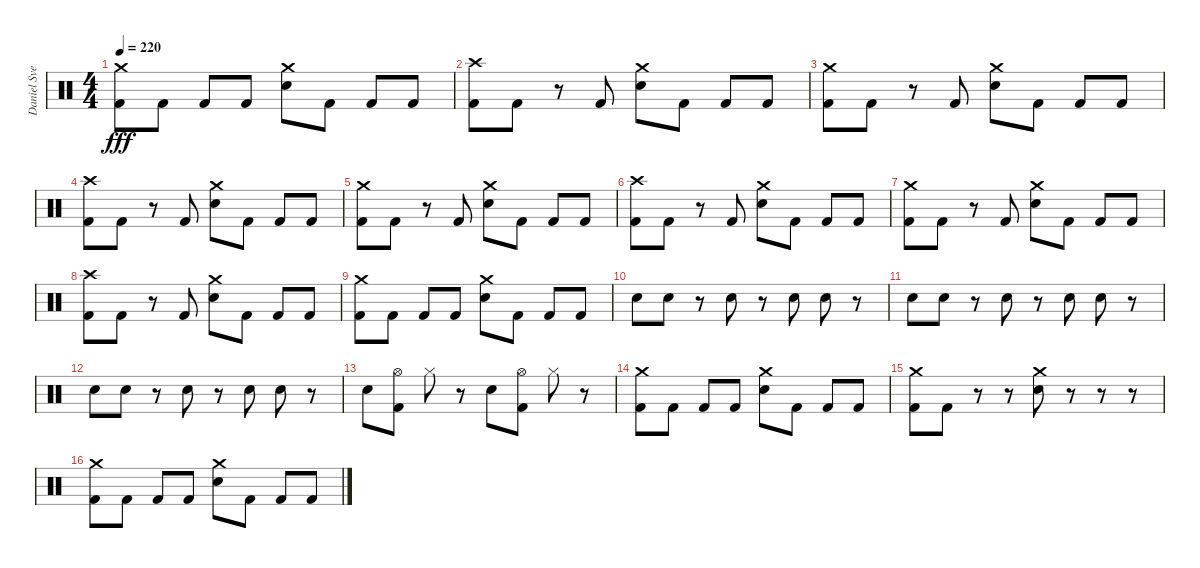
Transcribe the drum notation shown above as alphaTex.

\track ("Daniel Svensson" "Daniel Sve") {instrument percussion}
\staff {score}
\articulation defaults
\ts (4 4)
\tempo 220
\clef neutral
\ks c
("Crash medium (hit)" "Kick (hit) 2").8{dy fff} "Kick (hit) 2".8 "Kick (hit) 2".8 "Kick (hit) 2".8 ("Crash medium (hit)" "Electric Snare (hit)").8 "Kick (hit) 2".8 "Kick (hit) 2".8 "Kick (hit) 2".8 |
("Crash high (hit)" "Kick (hit) 2").8 "Kick (hit) 2".8 r.8 "Kick (hit) 2".8 ("Crash medium (hit)" "Electric Snare (hit)").8 "Kick (hit) 2".8 "Kick (hit) 2".8 "Kick (hit) 2".8 |
("Crash medium (hit)" "Kick (hit) 2").8 "Kick (hit) 2".8 r.8 "Kick (hit) 2".8 ("Crash medium (hit)" "Electric Snare (hit)").8 "Kick (hit) 2".8 "Kick (hit) 2".8 "Kick (hit) 2".8 |
("Crash high (hit)" "Kick (hit) 2").8 "Kick (hit) 2".8 r.8 "Kick (hit) 2".8 ("Crash medium (hit)" "Electric Snare (hit)").8 "Kick (hit) 2".8 "Kick (hit) 2".8 "Kick (hit) 2".8 |
("Crash medium (hit)" "Kick (hit) 2").8 "Kick (hit) 2".8 r.8 "Kick (hit) 2".8 ("Crash medium (hit)" "Electric Snare (hit)").8 "Kick (hit) 2".8 "Kick (hit) 2".8 "Kick (hit) 2".8 |
("Crash high (hit)" "Kick (hit) 2").8 "Kick (hit) 2".8 r.8 "Kick (hit) 2".8 ("Crash medium (hit)" "Electric Snare (hit)").8 "Kick (hit) 2".8 "Kick (hit) 2".8 "Kick (hit) 2".8 |
("Crash medium (hit)" "Kick (hit) 2").8 "Kick (hit) 2".8 r.8 "Kick (hit) 2".8 ("Crash medium (hit)" "Electric Snare (hit)").8 "Kick (hit) 2".8 "Kick (hit) 2".8 "Kick (hit) 2".8 |
("Crash high (hit)" "Kick (hit) 2").8 "Kick (hit) 2".8 r.8 "Kick (hit) 2".8 ("Crash medium (hit)" "Electric Snare (hit)").8 "Kick (hit) 2".8 "Kick (hit) 2".8 "Kick (hit) 2".8 |
("Crash medium (hit)" "Kick (hit) 2").8 "Kick (hit) 2".8 "Kick (hit) 2".8 "Kick (hit) 2".8 ("Crash medium (hit)" "Electric Snare (hit)").8 "Kick (hit) 2".8 "Kick (hit) 2".8 "Kick (hit) 2".8 |
"Electric Snare (hit)".8 "Electric Snare (hit)".8 r.8 "Electric Snare (hit)".8 r.8 "Electric Snare (hit)".8 "Electric Snare (hit)".8 r.8 |
"Electric Snare (hit)".8 "Electric Snare (hit)".8 r.8 "Electric Snare (hit)".8 r.8 "Electric Snare (hit)".8 "Electric Snare (hit)".8 r.8 |
"Electric Snare (hit)".8 "Electric Snare (hit)".8 r.8 "Electric Snare (hit)".8 r.8 "Electric Snare (hit)".8 "Electric Snare (hit)".8 r.8 |
"Electric Snare (hit)".8 ("Hi-Hat (open)" "Kick (hit) 2").8 "Hi-Hat (closed)".8 r.8 "Electric Snare (hit)".8 ("Hi-Hat (open)" "Kick (hit) 2").8 "Hi-Hat (closed)".8 r.8 |
("Crash medium (hit)" "Kick (hit) 2").8 "Kick (hit) 2".8 "Kick (hit) 2".8 "Kick (hit) 2".8 ("Crash medium (hit)" "Electric Snare (hit)").8 "Kick (hit) 2".8 "Kick (hit) 2".8 "Kick (hit) 2".8 |
("Crash medium (hit)" "Kick (hit) 2").8 "Kick (hit) 2".8 r.8 r.8 ("Crash medium (hit)" "Electric Snare (hit)").8 r.8 r.8 r.8 |
("Crash medium (hit)" "Kick (hit) 2").8 "Kick (hit) 2".8 "Kick (hit) 2".8 "Kick (hit) 2".8 ("Crash medium (hit)" "Electric Snare (hit)").8 "Kick (hit) 2".8 "Kick (hit) 2".8 "Kick (hit) 2".8
